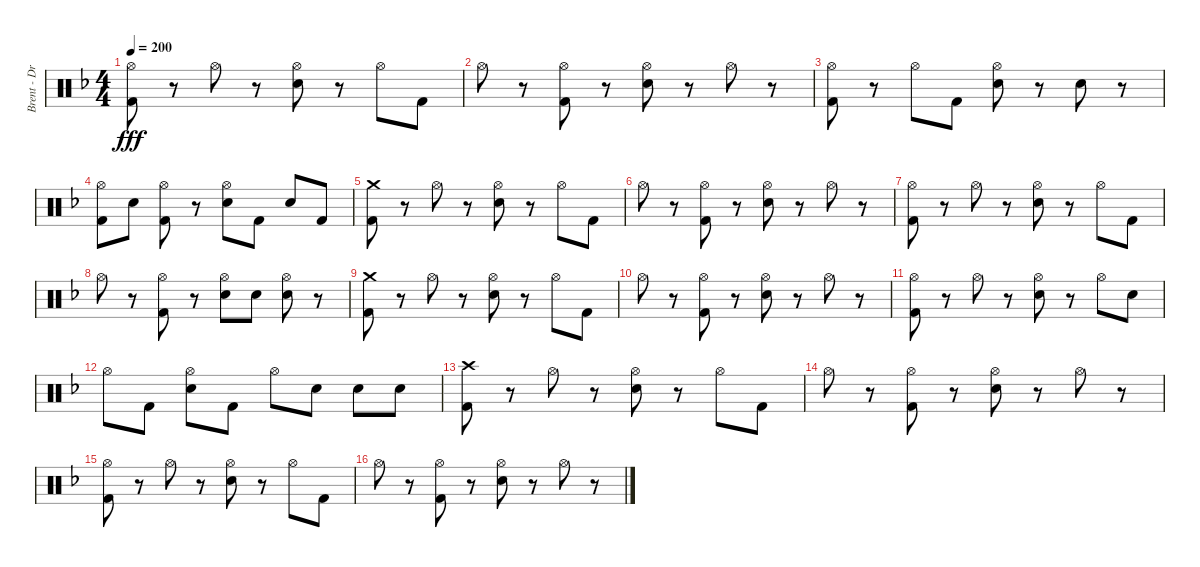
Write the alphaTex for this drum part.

\track ("Brent - Drums" "Brent - Dr") {instrument percussion}
\staff {score}
\articulation defaults
\ts (4 4)
\tempo 200
\clef neutral
\ks dminor
("Hi-Hat (open)" "Kick (hit) 2").8{dy fff} r.8 "Hi-Hat (open)".8 r.8 ("Hi-Hat (open)" "Snare (hit) 2").8 r.8 "Hi-Hat (open)".8 "Kick (hit) 2".8 |
"Hi-Hat (open)".8 r.8 ("Hi-Hat (open)" "Kick (hit) 2").8 r.8 ("Hi-Hat (open)" "Snare (hit) 2").8 r.8 "Hi-Hat (open)".8 r.8 |
("Hi-Hat (open)" "Kick (hit) 2").8 r.8 "Hi-Hat (open)".8 "Kick (hit) 2".8 ("Hi-Hat (open)" "Snare (hit) 2").8 r.8 "Snare (hit) 2".8 r.8 |
("Hi-Hat (open)" "Kick (hit) 2").8 "Snare (hit) 2".8 ("Hi-Hat (open)" "Kick (hit) 2").8 r.8 ("Hi-Hat (open)" "Snare (hit) 2").8 "Kick (hit) 2".8 "Snare (hit) 2".8 "Kick (hit) 2".8 |
("Crash medium (hit)" "Kick (hit) 2").8 r.8 "Hi-Hat (open)".8 r.8 ("Hi-Hat (open)" "Snare (hit) 2").8 r.8 "Hi-Hat (open)".8 "Kick (hit) 2".8 |
"Hi-Hat (open)".8 r.8 ("Hi-Hat (open)" "Kick (hit) 2").8 r.8 ("Hi-Hat (open)" "Snare (hit) 2").8 r.8 "Hi-Hat (open)".8 r.8 |
("Hi-Hat (open)" "Kick (hit) 2").8 r.8 "Hi-Hat (open)".8 r.8 ("Hi-Hat (open)" "Snare (hit) 2").8 r.8 "Hi-Hat (open)".8 "Kick (hit) 2".8 |
"Hi-Hat (open)".8 r.8 ("Hi-Hat (open)" "Kick (hit) 2").8 r.8 ("Hi-Hat (open)" "Snare (hit) 2").8 "Snare (hit) 2".8 ("Hi-Hat (open)" "Snare (hit) 2").8 r.8 |
("Crash medium (hit)" "Kick (hit) 2").8 r.8 "Hi-Hat (open)".8 r.8 ("Hi-Hat (open)" "Snare (hit) 2").8 r.8 "Hi-Hat (open)".8 "Kick (hit) 2".8 |
"Hi-Hat (open)".8 r.8 ("Hi-Hat (open)" "Kick (hit) 2").8 r.8 ("Hi-Hat (open)" "Snare (hit) 2").8 r.8 "Hi-Hat (open)".8 r.8 |
("Hi-Hat (open)" "Kick (hit) 2").8 r.8 "Hi-Hat (open)".8 r.8 ("Hi-Hat (open)" "Snare (hit) 2").8 r.8 "Hi-Hat (open)".8 "Snare (hit) 2".8 |
"Hi-Hat (open)".8 "Kick (hit) 2".8 ("Hi-Hat (open)" "Snare (hit) 2").8 "Kick (hit) 2".8 "Hi-Hat (open)".8 "Snare (hit) 2".8 "Snare (hit) 2".8 "Snare (hit) 2".8 |
("Crash high (hit)" "Kick (hit) 2").8 r.8 "Hi-Hat (open)".8 r.8 ("Hi-Hat (open)" "Snare (hit) 2").8 r.8 "Hi-Hat (open)".8 "Kick (hit) 2".8 |
"Hi-Hat (open)".8 r.8 ("Hi-Hat (open)" "Kick (hit) 2").8 r.8 ("Hi-Hat (open)" "Snare (hit) 2").8 r.8 "Hi-Hat (open)".8 r.8 |
("Hi-Hat (open)" "Kick (hit) 2").8 r.8 "Hi-Hat (open)".8 r.8 ("Hi-Hat (open)" "Snare (hit) 2").8 r.8 "Hi-Hat (open)".8 "Kick (hit) 2".8 |
"Hi-Hat (open)".8 r.8 ("Hi-Hat (open)" "Kick (hit) 2").8 r.8 ("Hi-Hat (open)" "Snare (hit) 2").8 r.8 "Hi-Hat (open)".8 r.8
